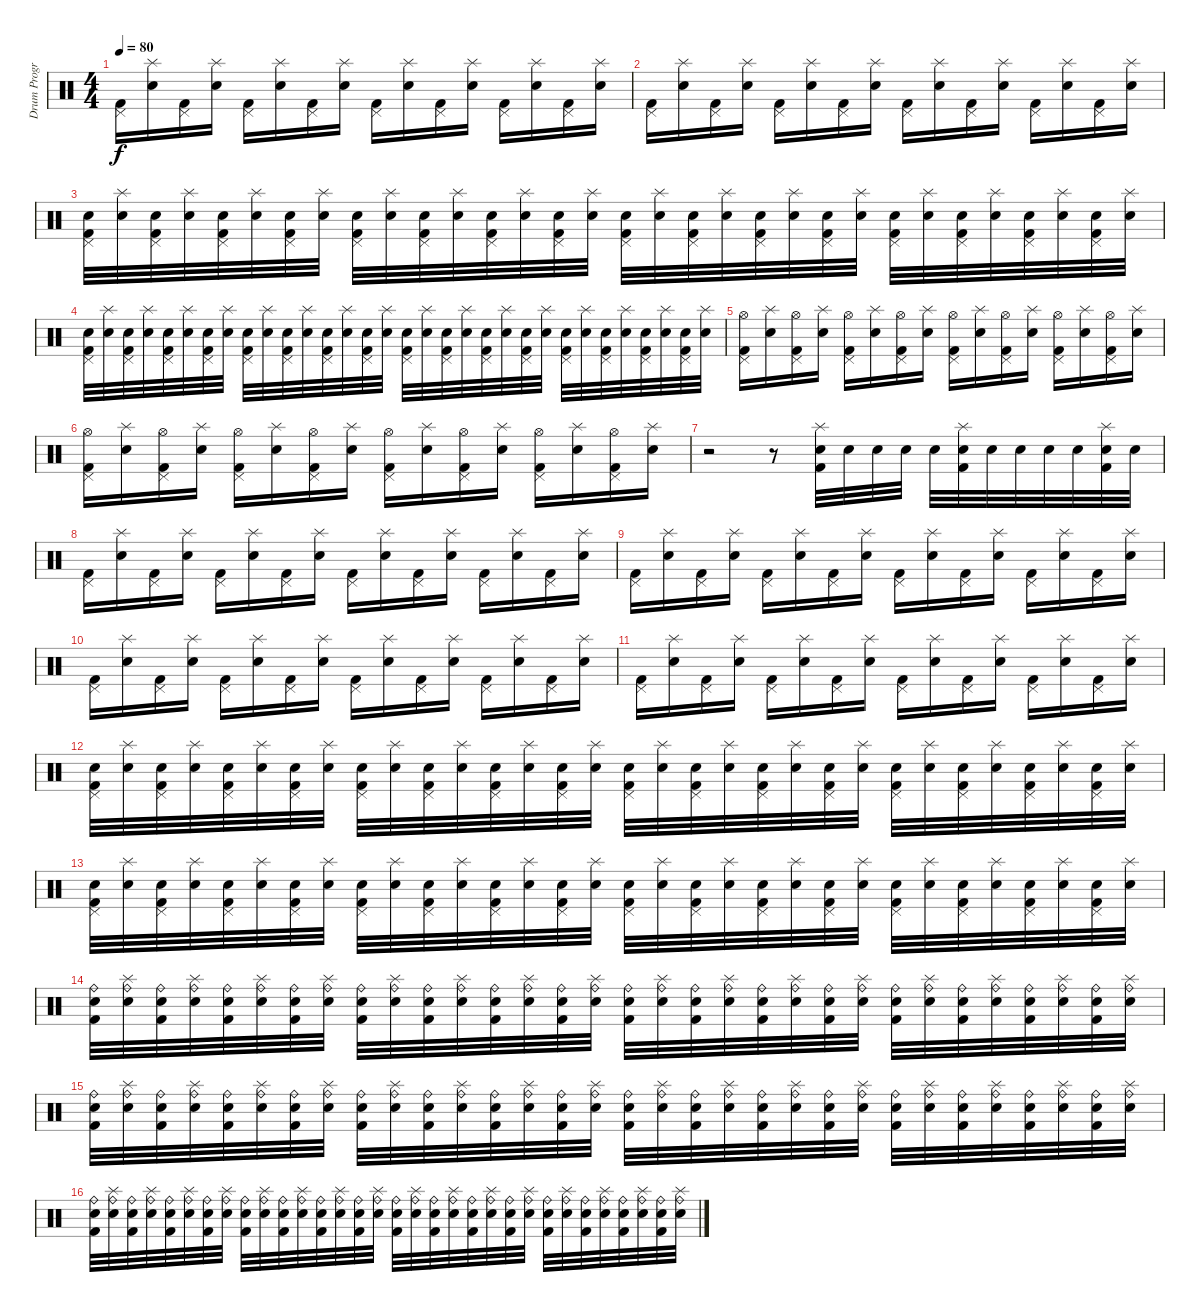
\track ("Drum Programming" "Drum Progr") {instrument percussion}
\staff {score}
\articulation defaults
\ts (4 4)
\tempo 80
\clef neutral
\ks c
("Pedal Hi-Hat (hit)" "Kick (hit) 2").16{dy f} ("Electric Snare (hit)" "Splash (hit)").16 ("Pedal Hi-Hat (hit)" "Kick (hit) 2").16 ("Electric Snare (hit)" "Splash (hit)").16 ("Pedal Hi-Hat (hit)" "Kick (hit) 2").16 ("Electric Snare (hit)" "Splash (hit)").16 ("Pedal Hi-Hat (hit)" "Kick (hit) 2").16 ("Electric Snare (hit)" "Splash (hit)").16 ("Pedal Hi-Hat (hit)" "Kick (hit) 2").16 ("Electric Snare (hit)" "Splash (hit)").16 ("Pedal Hi-Hat (hit)" "Kick (hit) 2").16 ("Electric Snare (hit)" "Splash (hit)").16 ("Pedal Hi-Hat (hit)" "Kick (hit) 2").16 ("Electric Snare (hit)" "Splash (hit)").16 ("Pedal Hi-Hat (hit)" "Kick (hit) 2").16 ("Electric Snare (hit)" "Splash (hit)").16 |
("Pedal Hi-Hat (hit)" "Kick (hit) 2").16 ("Electric Snare (hit)" "Splash (hit)").16 ("Pedal Hi-Hat (hit)" "Kick (hit) 2").16 ("Electric Snare (hit)" "Splash (hit)").16 ("Pedal Hi-Hat (hit)" "Kick (hit) 2").16 ("Electric Snare (hit)" "Splash (hit)").16 ("Pedal Hi-Hat (hit)" "Kick (hit) 2").16 ("Electric Snare (hit)" "Splash (hit)").16 ("Pedal Hi-Hat (hit)" "Kick (hit) 2").16 ("Electric Snare (hit)" "Splash (hit)").16 ("Pedal Hi-Hat (hit)" "Kick (hit) 2").16 ("Electric Snare (hit)" "Splash (hit)").16 ("Pedal Hi-Hat (hit)" "Kick (hit) 2").16 ("Electric Snare (hit)" "Splash (hit)").16 ("Pedal Hi-Hat (hit)" "Kick (hit) 2").16 ("Electric Snare (hit)" "Splash (hit)").16 |
("Pedal Hi-Hat (hit)" "Electric Snare (hit)" "Kick (hit) 2").32 ("Electric Snare (hit)" "Splash (hit)").32 ("Pedal Hi-Hat (hit)" "Electric Snare (hit)" "Kick (hit) 2").32 ("Electric Snare (hit)" "Splash (hit)").32 ("Pedal Hi-Hat (hit)" "Electric Snare (hit)" "Kick (hit) 2").32 ("Electric Snare (hit)" "Splash (hit)").32 ("Pedal Hi-Hat (hit)" "Electric Snare (hit)" "Kick (hit) 2").32 ("Electric Snare (hit)" "Splash (hit)").32 ("Pedal Hi-Hat (hit)" "Electric Snare (hit)" "Kick (hit) 2").32 ("Electric Snare (hit)" "Splash (hit)").32 ("Pedal Hi-Hat (hit)" "Electric Snare (hit)" "Kick (hit) 2").32 ("Electric Snare (hit)" "Splash (hit)").32 ("Pedal Hi-Hat (hit)" "Electric Snare (hit)" "Kick (hit) 2").32 ("Electric Snare (hit)" "Splash (hit)").32 ("Pedal Hi-Hat (hit)" "Electric Snare (hit)" "Kick (hit) 2").32 ("Electric Snare (hit)" "Splash (hit)").32 ("Pedal Hi-Hat (hit)" "Electric Snare (hit)" "Kick (hit) 2").32 ("Electric Snare (hit)" "Splash (hit)").32 ("Pedal Hi-Hat (hit)" "Electric Snare (hit)" "Kick (hit) 2").32 ("Electric Snare (hit)" "Splash (hit)").32 ("Pedal Hi-Hat (hit)" "Electric Snare (hit)" "Kick (hit) 2").32 ("Electric Snare (hit)" "Splash (hit)").32 ("Pedal Hi-Hat (hit)" "Electric Snare (hit)" "Kick (hit) 2").32 ("Electric Snare (hit)" "Splash (hit)").32 ("Pedal Hi-Hat (hit)" "Electric Snare (hit)" "Kick (hit) 2").32 ("Electric Snare (hit)" "Splash (hit)").32 ("Pedal Hi-Hat (hit)" "Electric Snare (hit)" "Kick (hit) 2").32 ("Electric Snare (hit)" "Splash (hit)").32 ("Pedal Hi-Hat (hit)" "Electric Snare (hit)" "Kick (hit) 2").32 ("Electric Snare (hit)" "Splash (hit)").32 ("Pedal Hi-Hat (hit)" "Electric Snare (hit)" "Kick (hit) 2").32 ("Electric Snare (hit)" "Splash (hit)").32 |
("Pedal Hi-Hat (hit)" "Electric Snare (hit)" "Kick (hit) 2").32 ("Electric Snare (hit)" "Splash (hit)").32 ("Pedal Hi-Hat (hit)" "Electric Snare (hit)" "Kick (hit) 2").32 ("Electric Snare (hit)" "Splash (hit)").32 ("Pedal Hi-Hat (hit)" "Electric Snare (hit)" "Kick (hit) 2").32 ("Electric Snare (hit)" "Splash (hit)").32 ("Pedal Hi-Hat (hit)" "Electric Snare (hit)" "Kick (hit) 2").32 ("Electric Snare (hit)" "Splash (hit)").32 ("Pedal Hi-Hat (hit)" "Electric Snare (hit)" "Kick (hit) 2").32 ("Electric Snare (hit)" "Splash (hit)").32 ("Pedal Hi-Hat (hit)" "Electric Snare (hit)" "Kick (hit) 2").32 ("Electric Snare (hit)" "Splash (hit)").32 ("Pedal Hi-Hat (hit)" "Electric Snare (hit)" "Kick (hit) 2").32 ("Electric Snare (hit)" "Splash (hit)").32 ("Pedal Hi-Hat (hit)" "Electric Snare (hit)" "Kick (hit) 2").32 ("Electric Snare (hit)" "Splash (hit)").32 ("Pedal Hi-Hat (hit)" "Electric Snare (hit)" "Kick (hit) 2").32 ("Electric Snare (hit)" "Splash (hit)").32 ("Pedal Hi-Hat (hit)" "Electric Snare (hit)" "Kick (hit) 2").32 ("Electric Snare (hit)" "Splash (hit)").32 ("Pedal Hi-Hat (hit)" "Electric Snare (hit)" "Kick (hit) 2").32 ("Electric Snare (hit)" "Splash (hit)").32 ("Pedal Hi-Hat (hit)" "Electric Snare (hit)" "Kick (hit) 2").32 ("Electric Snare (hit)" "Splash (hit)").32 ("Pedal Hi-Hat (hit)" "Electric Snare (hit)" "Kick (hit) 2").32 ("Electric Snare (hit)" "Splash (hit)").32 ("Pedal Hi-Hat (hit)" "Electric Snare (hit)" "Kick (hit) 2").32 ("Electric Snare (hit)" "Splash (hit)").32 ("Pedal Hi-Hat (hit)" "Electric Snare (hit)" "Kick (hit) 2").32 ("Electric Snare (hit)" "Splash (hit)").32 ("Pedal Hi-Hat (hit)" "Electric Snare (hit)" "Kick (hit) 2").32 ("Electric Snare (hit)" "Splash (hit)").32 |
("Pedal Hi-Hat (hit)" "Hi-Hat (open)" "Kick (hit) 2").16 ("Electric Snare (hit)" "Splash (hit)").16 ("Pedal Hi-Hat (hit)" "Hi-Hat (open)" "Kick (hit) 2").16 ("Electric Snare (hit)" "Splash (hit)").16 ("Pedal Hi-Hat (hit)" "Hi-Hat (open)" "Kick (hit) 2").16 ("Electric Snare (hit)" "Splash (hit)").16 ("Pedal Hi-Hat (hit)" "Hi-Hat (open)" "Kick (hit) 2").16 ("Electric Snare (hit)" "Splash (hit)").16 ("Pedal Hi-Hat (hit)" "Hi-Hat (open)" "Kick (hit) 2").16 ("Electric Snare (hit)" "Splash (hit)").16 ("Pedal Hi-Hat (hit)" "Hi-Hat (open)" "Kick (hit) 2").16 ("Electric Snare (hit)" "Splash (hit)").16 ("Pedal Hi-Hat (hit)" "Hi-Hat (open)" "Kick (hit) 2").16 ("Electric Snare (hit)" "Splash (hit)").16 ("Pedal Hi-Hat (hit)" "Hi-Hat (open)" "Kick (hit) 2").16 ("Electric Snare (hit)" "Splash (hit)").16 |
("Pedal Hi-Hat (hit)" "Hi-Hat (open)" "Kick (hit) 2").16 ("Electric Snare (hit)" "Splash (hit)").16 ("Pedal Hi-Hat (hit)" "Hi-Hat (open)" "Kick (hit) 2").16 ("Electric Snare (hit)" "Splash (hit)").16 ("Pedal Hi-Hat (hit)" "Hi-Hat (open)" "Kick (hit) 2").16 ("Electric Snare (hit)" "Splash (hit)").16 ("Pedal Hi-Hat (hit)" "Hi-Hat (open)" "Kick (hit) 2").16 ("Electric Snare (hit)" "Splash (hit)").16 ("Pedal Hi-Hat (hit)" "Hi-Hat (open)" "Kick (hit) 2").16 ("Electric Snare (hit)" "Splash (hit)").16 ("Pedal Hi-Hat (hit)" "Hi-Hat (open)" "Kick (hit) 2").16 ("Electric Snare (hit)" "Splash (hit)").16 ("Pedal Hi-Hat (hit)" "Hi-Hat (open)" "Kick (hit) 2").16 ("Electric Snare (hit)" "Splash (hit)").16 ("Pedal Hi-Hat (hit)" "Hi-Hat (open)" "Kick (hit) 2").16 ("Electric Snare (hit)" "Splash (hit)").16 |
r.2 r.8 ("Splash (hit)" "Electric Snare (hit)" "Kick (hit) 2").32 "Electric Snare (hit)".32 "Electric Snare (hit)".32 "Electric Snare (hit)".32 "Electric Snare (hit)".32 ("Splash (hit)" "Electric Snare (hit)" "Kick (hit) 2").32 "Electric Snare (hit)".32 "Electric Snare (hit)".32 "Electric Snare (hit)".32 "Electric Snare (hit)".32 ("Splash (hit)" "Electric Snare (hit)" "Kick (hit) 2").32 "Electric Snare (hit)".32 |
("Pedal Hi-Hat (hit)" "Kick (hit) 2").16 ("Electric Snare (hit)" "Splash (hit)").16 ("Pedal Hi-Hat (hit)" "Kick (hit) 2").16 ("Electric Snare (hit)" "Splash (hit)").16 ("Pedal Hi-Hat (hit)" "Kick (hit) 2").16 ("Electric Snare (hit)" "Splash (hit)").16 ("Pedal Hi-Hat (hit)" "Kick (hit) 2").16 ("Electric Snare (hit)" "Splash (hit)").16 ("Pedal Hi-Hat (hit)" "Kick (hit) 2").16 ("Electric Snare (hit)" "Splash (hit)").16 ("Pedal Hi-Hat (hit)" "Kick (hit) 2").16 ("Electric Snare (hit)" "Splash (hit)").16 ("Pedal Hi-Hat (hit)" "Kick (hit) 2").16 ("Electric Snare (hit)" "Splash (hit)").16 ("Pedal Hi-Hat (hit)" "Kick (hit) 2").16 ("Electric Snare (hit)" "Splash (hit)").16 |
("Pedal Hi-Hat (hit)" "Kick (hit) 2").16 ("Electric Snare (hit)" "Splash (hit)").16 ("Pedal Hi-Hat (hit)" "Kick (hit) 2").16 ("Electric Snare (hit)" "Splash (hit)").16 ("Pedal Hi-Hat (hit)" "Kick (hit) 2").16 ("Electric Snare (hit)" "Splash (hit)").16 ("Pedal Hi-Hat (hit)" "Kick (hit) 2").16 ("Electric Snare (hit)" "Splash (hit)").16 ("Pedal Hi-Hat (hit)" "Kick (hit) 2").16 ("Electric Snare (hit)" "Splash (hit)").16 ("Pedal Hi-Hat (hit)" "Kick (hit) 2").16 ("Electric Snare (hit)" "Splash (hit)").16 ("Pedal Hi-Hat (hit)" "Kick (hit) 2").16 ("Electric Snare (hit)" "Splash (hit)").16 ("Pedal Hi-Hat (hit)" "Kick (hit) 2").16 ("Electric Snare (hit)" "Splash (hit)").16 |
("Pedal Hi-Hat (hit)" "Kick (hit) 2").16 ("Electric Snare (hit)" "Splash (hit)").16 ("Pedal Hi-Hat (hit)" "Kick (hit) 2").16 ("Electric Snare (hit)" "Splash (hit)").16 ("Pedal Hi-Hat (hit)" "Kick (hit) 2").16 ("Electric Snare (hit)" "Splash (hit)").16 ("Pedal Hi-Hat (hit)" "Kick (hit) 2").16 ("Electric Snare (hit)" "Splash (hit)").16 ("Pedal Hi-Hat (hit)" "Kick (hit) 2").16 ("Electric Snare (hit)" "Splash (hit)").16 ("Pedal Hi-Hat (hit)" "Kick (hit) 2").16 ("Electric Snare (hit)" "Splash (hit)").16 ("Pedal Hi-Hat (hit)" "Kick (hit) 2").16 ("Electric Snare (hit)" "Splash (hit)").16 ("Pedal Hi-Hat (hit)" "Kick (hit) 2").16 ("Electric Snare (hit)" "Splash (hit)").16 |
("Pedal Hi-Hat (hit)" "Kick (hit) 2").16 ("Electric Snare (hit)" "Splash (hit)").16 ("Pedal Hi-Hat (hit)" "Kick (hit) 2").16 ("Electric Snare (hit)" "Splash (hit)").16 ("Pedal Hi-Hat (hit)" "Kick (hit) 2").16 ("Electric Snare (hit)" "Splash (hit)").16 ("Pedal Hi-Hat (hit)" "Kick (hit) 2").16 ("Electric Snare (hit)" "Splash (hit)").16 ("Pedal Hi-Hat (hit)" "Kick (hit) 2").16 ("Electric Snare (hit)" "Splash (hit)").16 ("Pedal Hi-Hat (hit)" "Kick (hit) 2").16 ("Electric Snare (hit)" "Splash (hit)").16 ("Pedal Hi-Hat (hit)" "Kick (hit) 2").16 ("Electric Snare (hit)" "Splash (hit)").16 ("Pedal Hi-Hat (hit)" "Kick (hit) 2").16 ("Electric Snare (hit)" "Splash (hit)").16 |
("Pedal Hi-Hat (hit)" "Electric Snare (hit)" "Kick (hit) 2").32 ("Electric Snare (hit)" "Splash (hit)").32 ("Pedal Hi-Hat (hit)" "Electric Snare (hit)" "Kick (hit) 2").32 ("Electric Snare (hit)" "Splash (hit)").32 ("Pedal Hi-Hat (hit)" "Electric Snare (hit)" "Kick (hit) 2").32 ("Electric Snare (hit)" "Splash (hit)").32 ("Pedal Hi-Hat (hit)" "Electric Snare (hit)" "Kick (hit) 2").32 ("Electric Snare (hit)" "Splash (hit)").32 ("Pedal Hi-Hat (hit)" "Electric Snare (hit)" "Kick (hit) 2").32 ("Electric Snare (hit)" "Splash (hit)").32 ("Pedal Hi-Hat (hit)" "Electric Snare (hit)" "Kick (hit) 2").32 ("Electric Snare (hit)" "Splash (hit)").32 ("Pedal Hi-Hat (hit)" "Electric Snare (hit)" "Kick (hit) 2").32 ("Electric Snare (hit)" "Splash (hit)").32 ("Pedal Hi-Hat (hit)" "Electric Snare (hit)" "Kick (hit) 2").32 ("Electric Snare (hit)" "Splash (hit)").32 ("Pedal Hi-Hat (hit)" "Electric Snare (hit)" "Kick (hit) 2").32 ("Electric Snare (hit)" "Splash (hit)").32 ("Pedal Hi-Hat (hit)" "Electric Snare (hit)" "Kick (hit) 2").32 ("Electric Snare (hit)" "Splash (hit)").32 ("Pedal Hi-Hat (hit)" "Electric Snare (hit)" "Kick (hit) 2").32 ("Electric Snare (hit)" "Splash (hit)").32 ("Pedal Hi-Hat (hit)" "Electric Snare (hit)" "Kick (hit) 2").32 ("Electric Snare (hit)" "Splash (hit)").32 ("Pedal Hi-Hat (hit)" "Electric Snare (hit)" "Kick (hit) 2").32 ("Electric Snare (hit)" "Splash (hit)").32 ("Pedal Hi-Hat (hit)" "Electric Snare (hit)" "Kick (hit) 2").32 ("Electric Snare (hit)" "Splash (hit)").32 ("Pedal Hi-Hat (hit)" "Electric Snare (hit)" "Kick (hit) 2").32 ("Electric Snare (hit)" "Splash (hit)").32 ("Pedal Hi-Hat (hit)" "Electric Snare (hit)" "Kick (hit) 2").32 ("Electric Snare (hit)" "Splash (hit)").32 |
("Pedal Hi-Hat (hit)" "Electric Snare (hit)" "Kick (hit) 2").32 ("Electric Snare (hit)" "Splash (hit)").32 ("Pedal Hi-Hat (hit)" "Electric Snare (hit)" "Kick (hit) 2").32 ("Electric Snare (hit)" "Splash (hit)").32 ("Pedal Hi-Hat (hit)" "Electric Snare (hit)" "Kick (hit) 2").32 ("Electric Snare (hit)" "Splash (hit)").32 ("Pedal Hi-Hat (hit)" "Electric Snare (hit)" "Kick (hit) 2").32 ("Electric Snare (hit)" "Splash (hit)").32 ("Pedal Hi-Hat (hit)" "Electric Snare (hit)" "Kick (hit) 2").32 ("Electric Snare (hit)" "Splash (hit)").32 ("Pedal Hi-Hat (hit)" "Electric Snare (hit)" "Kick (hit) 2").32 ("Electric Snare (hit)" "Splash (hit)").32 ("Pedal Hi-Hat (hit)" "Electric Snare (hit)" "Kick (hit) 2").32 ("Electric Snare (hit)" "Splash (hit)").32 ("Pedal Hi-Hat (hit)" "Electric Snare (hit)" "Kick (hit) 2").32 ("Electric Snare (hit)" "Splash (hit)").32 ("Pedal Hi-Hat (hit)" "Electric Snare (hit)" "Kick (hit) 2").32 ("Electric Snare (hit)" "Splash (hit)").32 ("Pedal Hi-Hat (hit)" "Electric Snare (hit)" "Kick (hit) 2").32 ("Electric Snare (hit)" "Splash (hit)").32 ("Pedal Hi-Hat (hit)" "Electric Snare (hit)" "Kick (hit) 2").32 ("Electric Snare (hit)" "Splash (hit)").32 ("Pedal Hi-Hat (hit)" "Electric Snare (hit)" "Kick (hit) 2").32 ("Electric Snare (hit)" "Splash (hit)").32 ("Pedal Hi-Hat (hit)" "Electric Snare (hit)" "Kick (hit) 2").32 ("Electric Snare (hit)" "Splash (hit)").32 ("Pedal Hi-Hat (hit)" "Electric Snare (hit)" "Kick (hit) 2").32 ("Electric Snare (hit)" "Splash (hit)").32 ("Pedal Hi-Hat (hit)" "Electric Snare (hit)" "Kick (hit) 2").32 ("Electric Snare (hit)" "Splash (hit)").32 ("Pedal Hi-Hat (hit)" "Electric Snare (hit)" "Kick (hit) 2").32 ("Electric Snare (hit)" "Splash (hit)").32 |
("Ride (bell)" "Electric Snare (hit)" "Kick (hit) 2").32 ("Ride (bell)" "Splash (hit)" "Electric Snare (hit)").32 ("Ride (bell)" "Electric Snare (hit)" "Kick (hit) 2").32 ("Ride (bell)" "Splash (hit)" "Electric Snare (hit)").32 ("Ride (bell)" "Electric Snare (hit)" "Kick (hit) 2").32 ("Ride (bell)" "Splash (hit)" "Electric Snare (hit)").32 ("Ride (bell)" "Electric Snare (hit)" "Kick (hit) 2").32 ("Ride (bell)" "Splash (hit)" "Electric Snare (hit)").32 ("Ride (bell)" "Electric Snare (hit)" "Kick (hit) 2").32 ("Ride (bell)" "Splash (hit)" "Electric Snare (hit)").32 ("Ride (bell)" "Electric Snare (hit)" "Kick (hit) 2").32 ("Ride (bell)" "Splash (hit)" "Electric Snare (hit)").32 ("Ride (bell)" "Electric Snare (hit)" "Kick (hit) 2").32 ("Ride (bell)" "Splash (hit)" "Electric Snare (hit)").32 ("Ride (bell)" "Electric Snare (hit)" "Kick (hit) 2").32 ("Ride (bell)" "Splash (hit)" "Electric Snare (hit)").32 ("Ride (bell)" "Electric Snare (hit)" "Kick (hit) 2").32 ("Ride (bell)" "Splash (hit)" "Electric Snare (hit)").32 ("Ride (bell)" "Electric Snare (hit)" "Kick (hit) 2").32 ("Ride (bell)" "Splash (hit)" "Electric Snare (hit)").32 ("Ride (bell)" "Electric Snare (hit)" "Kick (hit) 2").32 ("Ride (bell)" "Splash (hit)" "Electric Snare (hit)").32 ("Ride (bell)" "Electric Snare (hit)" "Kick (hit) 2").32 ("Ride (bell)" "Splash (hit)" "Electric Snare (hit)").32 ("Ride (bell)" "Electric Snare (hit)" "Kick (hit) 2").32 ("Ride (bell)" "Splash (hit)" "Electric Snare (hit)").32 ("Ride (bell)" "Electric Snare (hit)" "Kick (hit) 2").32 ("Ride (bell)" "Splash (hit)" "Electric Snare (hit)").32 ("Ride (bell)" "Electric Snare (hit)" "Kick (hit) 2").32 ("Ride (bell)" "Splash (hit)" "Electric Snare (hit)").32 ("Ride (bell)" "Electric Snare (hit)" "Kick (hit) 2").32 ("Ride (bell)" "Splash (hit)" "Electric Snare (hit)").32 |
("Ride (bell)" "Electric Snare (hit)" "Kick (hit) 2").32 ("Ride (bell)" "Splash (hit)" "Electric Snare (hit)").32 ("Ride (bell)" "Electric Snare (hit)" "Kick (hit) 2").32 ("Ride (bell)" "Splash (hit)" "Electric Snare (hit)").32 ("Ride (bell)" "Electric Snare (hit)" "Kick (hit) 2").32 ("Ride (bell)" "Splash (hit)" "Electric Snare (hit)").32 ("Ride (bell)" "Electric Snare (hit)" "Kick (hit) 2").32 ("Ride (bell)" "Splash (hit)" "Electric Snare (hit)").32 ("Ride (bell)" "Electric Snare (hit)" "Kick (hit) 2").32 ("Ride (bell)" "Splash (hit)" "Electric Snare (hit)").32 ("Ride (bell)" "Electric Snare (hit)" "Kick (hit) 2").32 ("Ride (bell)" "Splash (hit)" "Electric Snare (hit)").32 ("Ride (bell)" "Electric Snare (hit)" "Kick (hit) 2").32 ("Ride (bell)" "Splash (hit)" "Electric Snare (hit)").32 ("Ride (bell)" "Electric Snare (hit)" "Kick (hit) 2").32 ("Ride (bell)" "Splash (hit)" "Electric Snare (hit)").32 ("Ride (bell)" "Electric Snare (hit)" "Kick (hit) 2").32 ("Ride (bell)" "Splash (hit)" "Electric Snare (hit)").32 ("Ride (bell)" "Electric Snare (hit)" "Kick (hit) 2").32 ("Ride (bell)" "Splash (hit)" "Electric Snare (hit)").32 ("Ride (bell)" "Electric Snare (hit)" "Kick (hit) 2").32 ("Ride (bell)" "Splash (hit)" "Electric Snare (hit)").32 ("Ride (bell)" "Electric Snare (hit)" "Kick (hit) 2").32 ("Ride (bell)" "Splash (hit)" "Electric Snare (hit)").32 ("Ride (bell)" "Electric Snare (hit)" "Kick (hit) 2").32 ("Ride (bell)" "Splash (hit)" "Electric Snare (hit)").32 ("Ride (bell)" "Electric Snare (hit)" "Kick (hit) 2").32 ("Ride (bell)" "Splash (hit)" "Electric Snare (hit)").32 ("Ride (bell)" "Electric Snare (hit)" "Kick (hit) 2").32 ("Ride (bell)" "Splash (hit)" "Electric Snare (hit)").32 ("Ride (bell)" "Electric Snare (hit)" "Kick (hit) 2").32 ("Ride (bell)" "Splash (hit)" "Electric Snare (hit)").32 |
("Ride (bell)" "Electric Snare (hit)" "Kick (hit) 2").32 ("Ride (bell)" "Splash (hit)" "Electric Snare (hit)").32 ("Ride (bell)" "Electric Snare (hit)" "Kick (hit) 2").32 ("Ride (bell)" "Splash (hit)" "Electric Snare (hit)").32 ("Ride (bell)" "Electric Snare (hit)" "Kick (hit) 2").32 ("Ride (bell)" "Splash (hit)" "Electric Snare (hit)").32 ("Ride (bell)" "Electric Snare (hit)" "Kick (hit) 2").32 ("Ride (bell)" "Splash (hit)" "Electric Snare (hit)").32 ("Ride (bell)" "Electric Snare (hit)" "Kick (hit) 2").32 ("Ride (bell)" "Splash (hit)" "Electric Snare (hit)").32 ("Ride (bell)" "Electric Snare (hit)" "Kick (hit) 2").32 ("Ride (bell)" "Splash (hit)" "Electric Snare (hit)").32 ("Ride (bell)" "Electric Snare (hit)" "Kick (hit) 2").32 ("Ride (bell)" "Splash (hit)" "Electric Snare (hit)").32 ("Ride (bell)" "Electric Snare (hit)" "Kick (hit) 2").32 ("Ride (bell)" "Splash (hit)" "Electric Snare (hit)").32 ("Ride (bell)" "Electric Snare (hit)" "Kick (hit) 2").32 ("Ride (bell)" "Splash (hit)" "Electric Snare (hit)").32 ("Ride (bell)" "Electric Snare (hit)" "Kick (hit) 2").32 ("Ride (bell)" "Splash (hit)" "Electric Snare (hit)").32 ("Ride (bell)" "Electric Snare (hit)" "Kick (hit) 2").32 ("Ride (bell)" "Splash (hit)" "Electric Snare (hit)").32 ("Ride (bell)" "Electric Snare (hit)" "Kick (hit) 2").32 ("Ride (bell)" "Splash (hit)" "Electric Snare (hit)").32 ("Ride (bell)" "Electric Snare (hit)" "Kick (hit) 2").32 ("Ride (bell)" "Splash (hit)" "Electric Snare (hit)").32 ("Ride (bell)" "Electric Snare (hit)" "Kick (hit) 2").32 ("Ride (bell)" "Splash (hit)" "Electric Snare (hit)").32 ("Ride (bell)" "Electric Snare (hit)" "Kick (hit) 2").32 ("Ride (bell)" "Splash (hit)" "Electric Snare (hit)").32 ("Ride (bell)" "Electric Snare (hit)" "Kick (hit) 2").32 ("Ride (bell)" "Splash (hit)" "Electric Snare (hit)").32
